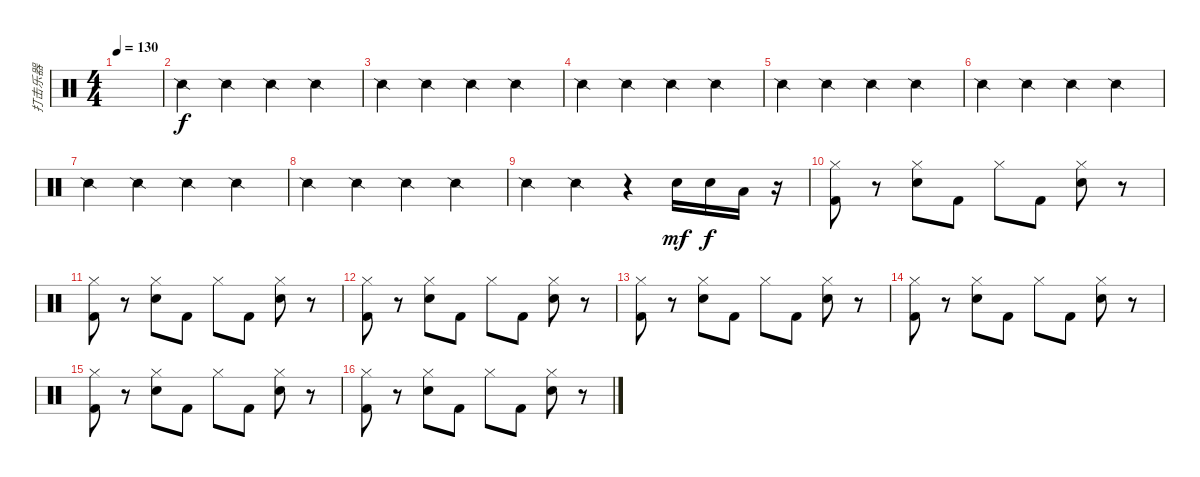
\track ("打击乐器" "打击乐器") {instrument percussion}
\staff {score}
\articulation defaults
\ts (4 4)
\tempo 130
\clef neutral
\ks c
|
"Snare (side stick) 2".4{volume 5} "Snare (side stick) 2".4 "Snare (side stick) 2".4 "Snare (side stick) 2".4 |
"Snare (side stick) 2".4 "Snare (side stick) 2".4 "Snare (side stick) 2".4 "Snare (side stick) 2".4 |
"Snare (side stick) 2".4 "Snare (side stick) 2".4 "Snare (side stick) 2".4 "Snare (side stick) 2".4 |
"Snare (side stick) 2".4 "Snare (side stick) 2".4 "Snare (side stick) 2".4 "Snare (side stick) 2".4 |
"Snare (side stick) 2".4 "Snare (side stick) 2".4 "Snare (side stick) 2".4 "Snare (side stick) 2".4 |
"Snare (side stick) 2".4 "Snare (side stick) 2".4 "Snare (side stick) 2".4 "Snare (side stick) 2".4 |
"Snare (side stick) 2".4 "Snare (side stick) 2".4 "Snare (side stick) 2".4 "Snare (side stick) 2".4 |
"Snare (side stick) 2".4 "Snare (side stick) 2".4 r.4{volume 16} "Electric Snare (hit)".16{dy mf} "Electric Snare (hit)".16{dy f} "Low Tom (hit)".16 r.16 |
("Hi-Hat (closed)" "Kick (hit) 2").8 r.8 ("Hi-Hat (closed)" "Electric Snare (hit)").8 "Kick (hit) 2".8 "Hi-Hat (closed)".8 "Kick (hit) 2".8 ("Hi-Hat (closed)" "Electric Snare (hit)").8 r.8 |
("Hi-Hat (closed)" "Kick (hit) 2").8 r.8 ("Hi-Hat (closed)" "Electric Snare (hit)").8 "Kick (hit) 2".8 "Hi-Hat (closed)".8 "Kick (hit) 2".8 ("Hi-Hat (closed)" "Electric Snare (hit)").8 r.8 |
("Hi-Hat (closed)" "Kick (hit) 2").8 r.8 ("Hi-Hat (closed)" "Electric Snare (hit)").8 "Kick (hit) 2".8 "Hi-Hat (closed)".8 "Kick (hit) 2".8 ("Hi-Hat (closed)" "Electric Snare (hit)").8 r.8 |
("Hi-Hat (closed)" "Kick (hit) 2").8 r.8 ("Hi-Hat (closed)" "Electric Snare (hit)").8 "Kick (hit) 2".8 "Hi-Hat (closed)".8 "Kick (hit) 2".8 ("Hi-Hat (closed)" "Electric Snare (hit)").8 r.8 |
("Hi-Hat (closed)" "Kick (hit) 2").8 r.8 ("Hi-Hat (closed)" "Electric Snare (hit)").8 "Kick (hit) 2".8 "Hi-Hat (closed)".8 "Kick (hit) 2".8 ("Hi-Hat (closed)" "Electric Snare (hit)").8 r.8 |
("Hi-Hat (closed)" "Kick (hit) 2").8 r.8 ("Hi-Hat (closed)" "Electric Snare (hit)").8 "Kick (hit) 2".8 "Hi-Hat (closed)".8 "Kick (hit) 2".8 ("Hi-Hat (closed)" "Electric Snare (hit)").8 r.8 |
("Hi-Hat (closed)" "Kick (hit) 2").8 r.8 ("Hi-Hat (closed)" "Electric Snare (hit)").8 "Kick (hit) 2".8 "Hi-Hat (closed)".8 "Kick (hit) 2".8 ("Hi-Hat (closed)" "Electric Snare (hit)").8 r.8
